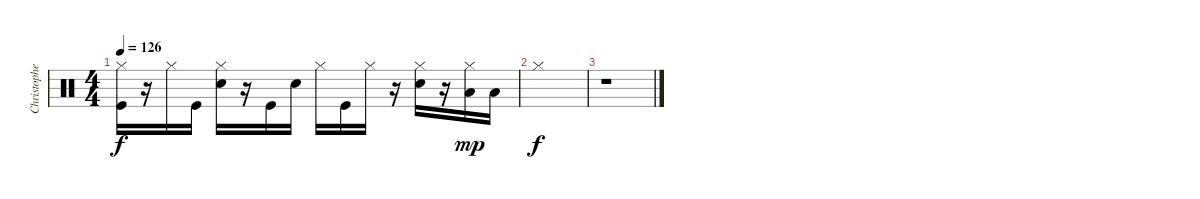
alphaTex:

\track ("Christopher - Drums" "Christophe") {instrument percussion}
\staff {score}
\articulation defaults
\ts (4 4)
\tempo 126
\clef neutral
\ks c
("Hi-Hat (closed)" "Kick (hit)").16{dy f} r.16 "Hi-Hat (closed)".16 "Kick (hit)".16 ("Hi-Hat (closed)" "Snare (hit) 2").16 r.16 "Kick (hit)".16 "Snare (hit) 2".16 "Hi-Hat (closed)".16 "Kick (hit)".16 "Hi-Hat (closed)".16 r.16 ("Hi-Hat (closed)" "Snare (hit) 2").16 r.16 ("Hi-Hat (closed)" "Low Floor Tom (hit)").16{dy mp} "Low Floor Tom (hit)".16 |
"Hi-Hat (closed)".1{dy f} |
r.1
